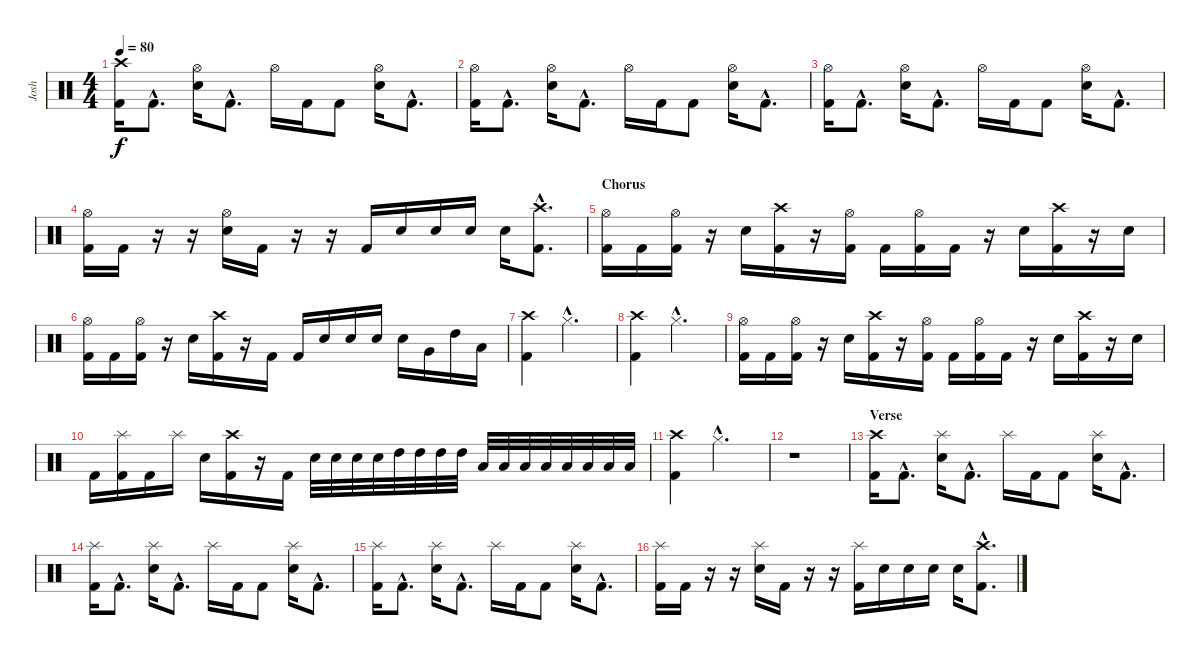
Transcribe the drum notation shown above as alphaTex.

\track ("Josh" "Josh") {instrument percussion}
\staff {score}
\articulation defaults
\ts (4 4)
\tempo 80
\clef neutral
\ks c
("Crash high (hit)" "Kick (hit) 2").16{dy f} "Kick (hit) 2"{hac}.8{d} ("Hi-Hat (open)" "Electric Snare (hit)").16 "Kick (hit) 2"{hac}.8{d} "Hi-Hat (open)".16 "Kick (hit) 2".16 "Kick (hit) 2".8 ("Hi-Hat (open)" "Electric Snare (hit)").16 "Kick (hit) 2"{hac}.8{d} |
("Hi-Hat (open)" "Kick (hit) 2").16 "Kick (hit) 2"{hac}.8{d} ("Hi-Hat (open)" "Electric Snare (hit)").16 "Kick (hit) 2"{hac}.8{d} "Hi-Hat (open)".16 "Kick (hit) 2".16 "Kick (hit) 2".8 ("Hi-Hat (open)" "Electric Snare (hit)").16 "Kick (hit) 2"{hac}.8{d} |
("Hi-Hat (open)" "Kick (hit) 2").16 "Kick (hit) 2"{hac}.8{d} ("Hi-Hat (open)" "Electric Snare (hit)").16 "Kick (hit) 2"{hac}.8{d} "Hi-Hat (open)".16 "Kick (hit) 2".16 "Kick (hit) 2".8 ("Hi-Hat (open)" "Electric Snare (hit)").16 "Kick (hit) 2"{hac}.8{d} |
("Hi-Hat (open)" "Kick (hit) 2").16 "Kick (hit) 2".16 r.16 r.16 ("Hi-Hat (open)" "Electric Snare (hit)").16 "Kick (hit) 2".16 r.16 r.16 "Kick (hit) 2".16 "Electric Snare (hit)".16 "Electric Snare (hit)".16 "Electric Snare (hit)".16 "Electric Snare (hit)".16 ("Crash high (hit)"{hac} "Kick (hit) 2"{hac}).8{d} |
\section ("" "Chorus")
("Hi-Hat (open)" "Kick (hit) 2").16 "Kick (hit) 2".16 ("Hi-Hat (open)" "Kick (hit) 2").16 r.16 "Electric Snare (hit)".16 ("Crash high (hit)" "Kick (hit) 2").16 r.16 ("Hi-Hat (open)" "Kick (hit) 2").16 "Kick (hit) 2".16 ("Hi-Hat (open)" "Kick (hit) 2").16 "Kick (hit) 2".16 r.16 "Electric Snare (hit)".16 ("Crash high (hit)" "Kick (hit) 2").16 r.16 "Electric Snare (hit)".16 |
("Hi-Hat (open)" "Kick (hit) 2").16 "Kick (hit) 2".16 ("Hi-Hat (open)" "Kick (hit) 2").16 r.16 "Electric Snare (hit)".16 ("Crash high (hit)" "Kick (hit) 2").16 r.16 "Kick (hit) 2".16 "Kick (hit) 2".16 "Electric Snare (hit)".16 "Electric Snare (hit)".16 "Electric Snare (hit)".16 "Electric Snare (hit)".16 "Very Low Tom (hit)".16 "High Tom (hit)".16 "Low Floor Tom (hit)".16 |
("Crash high (hit)" "Kick (hit) 2").4 "Hi-Hat (closed)"{hac}.2{d} |
("Crash high (hit)" "Kick (hit) 2").4 "Hi-Hat (closed)"{hac}.2{d} |
("Hi-Hat (open)" "Kick (hit) 2").16 "Kick (hit) 2".16 ("Hi-Hat (open)" "Kick (hit) 2").16 r.16 "Electric Snare (hit)".16 ("Crash high (hit)" "Kick (hit) 2").16 r.16 ("Hi-Hat (open)" "Kick (hit) 2").16 "Kick (hit) 2".16 ("Hi-Hat (open)" "Kick (hit) 2").16 "Kick (hit) 2".16 r.16 "Electric Snare (hit)".16 ("Crash high (hit)" "Kick (hit) 2").16 r.16 "Electric Snare (hit)".16 |
"Kick (hit) 2".16 ("Splash (hit)" "Kick (hit) 2").16 "Kick (hit) 2".16 "Splash (hit)".16 "Electric Snare (hit)".16 ("Crash high (hit)" "Kick (hit) 2").16 r.16 "Kick (hit) 2".16 "Electric Snare (hit)".32 "Electric Snare (hit)".32 "Electric Snare (hit)".32 "Electric Snare (hit)".32 "High Tom (hit)".32 "High Tom (hit)".32 "High Tom (hit)".32 "High Tom (hit)".32 "Low Floor Tom (hit)".32 "Low Floor Tom (hit)".32 "Low Floor Tom (hit)".32 "Low Floor Tom (hit)".32 "Low Floor Tom (hit)".32 "Low Floor Tom (hit)".32 "Low Floor Tom (hit)".32 "Low Floor Tom (hit)".32 |
("Crash high (hit)" "Kick (hit) 2").4 "Hi-Hat (closed)"{hac}.2{d} |
r.1 |
\section ("" "Verse")
("Crash high (hit)" "Kick (hit) 2").16 "Kick (hit) 2"{hac}.8{d} ("Splash (hit)" "Electric Snare (hit)").16 "Kick (hit) 2"{hac}.8{d} "Splash (hit)".16 "Kick (hit) 2".16 "Kick (hit) 2".8 ("Splash (hit)" "Electric Snare (hit)").16 "Kick (hit) 2"{hac}.8{d} |
("Splash (hit)" "Kick (hit) 2").16 "Kick (hit) 2"{hac}.8{d} ("Splash (hit)" "Electric Snare (hit)").16 "Kick (hit) 2"{hac}.8{d} "Splash (hit)".16 "Kick (hit) 2".16 "Kick (hit) 2".8 ("Splash (hit)" "Electric Snare (hit)").16 "Kick (hit) 2"{hac}.8{d} |
("Splash (hit)" "Kick (hit) 2").16 "Kick (hit) 2"{hac}.8{d} ("Splash (hit)" "Electric Snare (hit)").16 "Kick (hit) 2"{hac}.8{d} "Splash (hit)".16 "Kick (hit) 2".16 "Kick (hit) 2".8 ("Splash (hit)" "Electric Snare (hit)").16 "Kick (hit) 2"{hac}.8{d} |
("Splash (hit)" "Kick (hit) 2").16 "Kick (hit) 2".16 r.16 r.16 ("Splash (hit)" "Electric Snare (hit)").16 "Kick (hit) 2".16 r.16 r.16 ("Splash (hit)" "Kick (hit) 2").16 "Electric Snare (hit)".16 "Electric Snare (hit)".16 "Electric Snare (hit)".16 "Electric Snare (hit)".16 ("Crash high (hit)"{hac} "Kick (hit) 2"{hac}).8{d}
